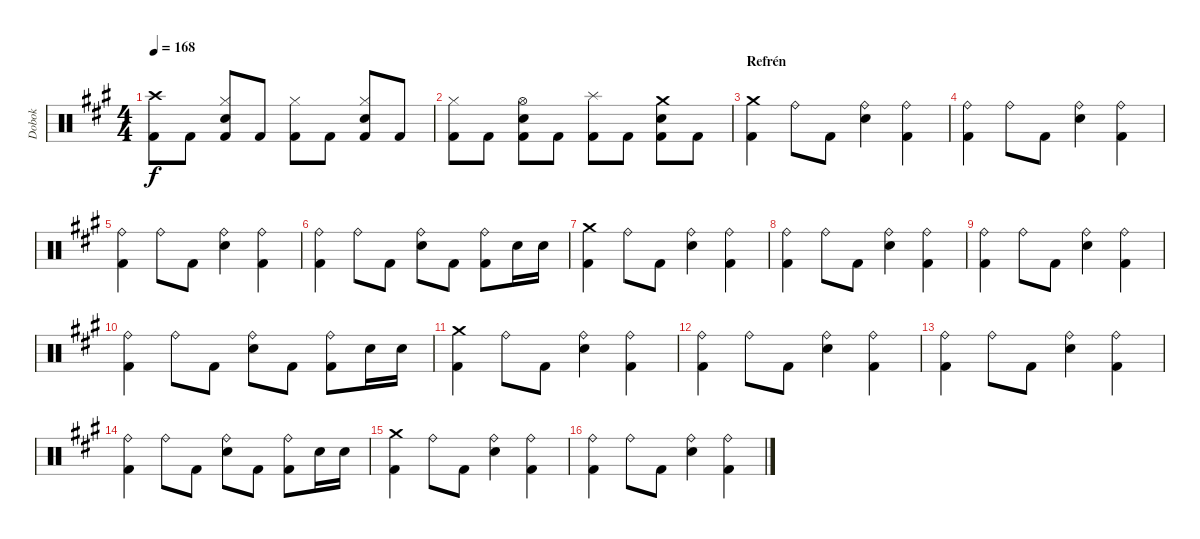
\track ("Dobok" "Dobok") {instrument percussion}
\staff {score}
\articulation defaults
\ts (4 4)
\tempo 168
\clef neutral
\ks f#minor
("Crash high (hit)" "Kick (hit) 2").8{dy f} "Kick (hit) 2".8 ("Hi-Hat (closed)" "Snare (hit) 2" "Kick (hit) 2").8 "Kick (hit) 2".8 ("Hi-Hat (closed)" "Kick (hit) 2").8 "Kick (hit) 2".8 ("Hi-Hat (closed)" "Snare (hit) 2" "Kick (hit) 2").8 "Kick (hit) 2".8 |
("Hi-Hat (closed)" "Kick (hit) 2").8 "Kick (hit) 2".8 ("Hi-Hat (open)" "Snare (hit) 2" "Kick (hit) 2").8 "Kick (hit) 2".8 ("Splash (hit)" "Kick (hit) 2").8 "Kick (hit) 2".8 ("Crash medium (hit)" "Snare (hit) 2" "Kick (hit) 2").8 "Kick (hit) 2".8 |
\section ("" "Refrén")
("Crash medium (hit)" "Kick (hit) 2").4 "Ride (bell)".8 "Kick (hit) 2".8 ("Ride (bell)" "Snare (hit) 2").4 ("Ride (bell)" "Kick (hit) 2").4 |
("Ride (bell)" "Kick (hit) 2").4 "Ride (bell)".8 "Kick (hit) 2".8 ("Ride (bell)" "Snare (hit) 2").4 ("Ride (bell)" "Kick (hit) 2").4 |
("Ride (bell)" "Kick (hit) 2").4 "Ride (bell)".8 "Kick (hit) 2".8 ("Ride (bell)" "Snare (hit) 2").4 ("Ride (bell)" "Kick (hit) 2").4 |
("Ride (bell)" "Kick (hit) 2").4 "Ride (bell)".8 "Kick (hit) 2".8 ("Ride (bell)" "Snare (hit) 2").8 "Kick (hit) 2".8 ("Ride (bell)" "Kick (hit) 2").8 "Snare (hit) 2".16 "Snare (hit) 2".16 |
("Crash medium (hit)" "Kick (hit) 2").4 "Ride (bell)".8 "Kick (hit) 2".8 ("Ride (bell)" "Snare (hit) 2").4 ("Ride (bell)" "Kick (hit) 2").4 |
("Ride (bell)" "Kick (hit) 2").4 "Ride (bell)".8 "Kick (hit) 2".8 ("Ride (bell)" "Snare (hit) 2").4 ("Ride (bell)" "Kick (hit) 2").4 |
("Ride (bell)" "Kick (hit) 2").4 "Ride (bell)".8 "Kick (hit) 2".8 ("Ride (bell)" "Snare (hit) 2").4 ("Ride (bell)" "Kick (hit) 2").4 |
("Ride (bell)" "Kick (hit) 2").4 "Ride (bell)".8 "Kick (hit) 2".8 ("Ride (bell)" "Snare (hit) 2").8 "Kick (hit) 2".8 ("Ride (bell)" "Kick (hit) 2").8 "Snare (hit) 2".16 "Snare (hit) 2".16 |
("Crash medium (hit)" "Kick (hit) 2").4 "Ride (bell)".8 "Kick (hit) 2".8 ("Ride (bell)" "Snare (hit) 2").4 ("Ride (bell)" "Kick (hit) 2").4 |
("Ride (bell)" "Kick (hit) 2").4 "Ride (bell)".8 "Kick (hit) 2".8 ("Ride (bell)" "Snare (hit) 2").4 ("Ride (bell)" "Kick (hit) 2").4 |
("Ride (bell)" "Kick (hit) 2").4 "Ride (bell)".8 "Kick (hit) 2".8 ("Ride (bell)" "Snare (hit) 2").4 ("Ride (bell)" "Kick (hit) 2").4 |
("Ride (bell)" "Kick (hit) 2").4 "Ride (bell)".8 "Kick (hit) 2".8 ("Ride (bell)" "Snare (hit) 2").8 "Kick (hit) 2".8 ("Ride (bell)" "Kick (hit) 2").8 "Snare (hit) 2".16 "Snare (hit) 2".16 |
("Crash medium (hit)" "Kick (hit) 2").4 "Ride (bell)".8 "Kick (hit) 2".8 ("Ride (bell)" "Snare (hit) 2").4 ("Ride (bell)" "Kick (hit) 2").4 |
("Ride (bell)" "Kick (hit) 2").4 "Ride (bell)".8 "Kick (hit) 2".8 ("Ride (bell)" "Snare (hit) 2").4 ("Ride (bell)" "Kick (hit) 2").4
